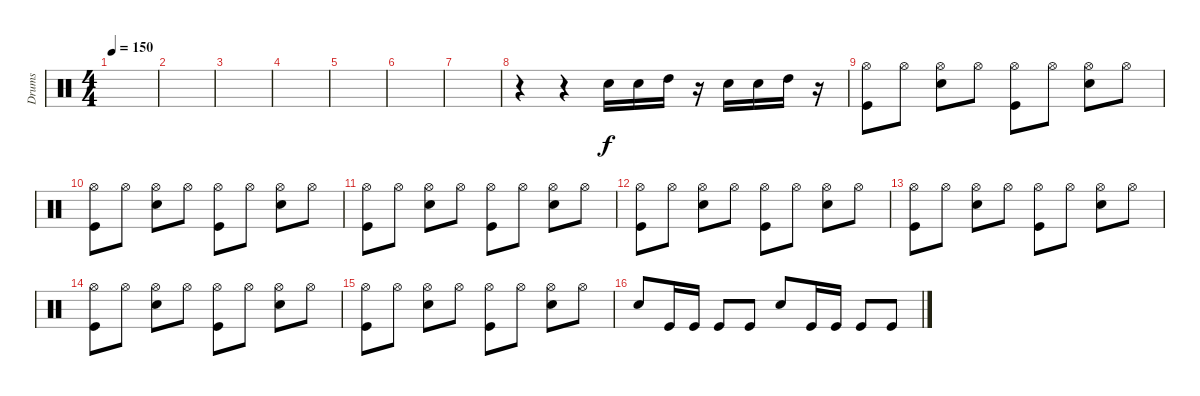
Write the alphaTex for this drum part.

\track ("Drums" "Drums") {instrument percussion}
\staff {score}
\articulation defaults
\ts (4 4)
\tempo 150
\clef neutral
\ks c
|
|
|
|
|
|
|
r.4 r.4 "Electric Snare (hit)".16 "Electric Snare (hit)".16 "High Tom (hit)".16 r.16 "Electric Snare (hit)".16 "Electric Snare (hit)".16 "High Tom (hit)".16 r.16 |
("Hi-Hat (open)" "Kick (hit)").8 "Hi-Hat (open)".8 ("Hi-Hat (open)" "Snare (hit) 2").8 "Hi-Hat (open)".8 ("Hi-Hat (open)" "Kick (hit)").8 "Hi-Hat (open)".8 ("Hi-Hat (open)" "Snare (hit) 2").8 "Hi-Hat (open)".8 |
("Hi-Hat (open)" "Kick (hit)").8 "Hi-Hat (open)".8 ("Hi-Hat (open)" "Snare (hit) 2").8 "Hi-Hat (open)".8 ("Hi-Hat (open)" "Kick (hit)").8 "Hi-Hat (open)".8 ("Hi-Hat (open)" "Snare (hit) 2").8 "Hi-Hat (open)".8 |
("Hi-Hat (open)" "Kick (hit)").8 "Hi-Hat (open)".8 ("Hi-Hat (open)" "Snare (hit) 2").8 "Hi-Hat (open)".8 ("Hi-Hat (open)" "Kick (hit)").8 "Hi-Hat (open)".8 ("Hi-Hat (open)" "Snare (hit) 2").8 "Hi-Hat (open)".8 |
("Hi-Hat (open)" "Kick (hit)").8 "Hi-Hat (open)".8 ("Hi-Hat (open)" "Snare (hit) 2").8 "Hi-Hat (open)".8 ("Hi-Hat (open)" "Kick (hit)").8 "Hi-Hat (open)".8 ("Hi-Hat (open)" "Snare (hit) 2").8 "Hi-Hat (open)".8 |
("Hi-Hat (open)" "Kick (hit)").8 "Hi-Hat (open)".8 ("Hi-Hat (open)" "Snare (hit) 2").8 "Hi-Hat (open)".8 ("Hi-Hat (open)" "Kick (hit)").8 "Hi-Hat (open)".8 ("Hi-Hat (open)" "Snare (hit) 2").8 "Hi-Hat (open)".8 |
("Hi-Hat (open)" "Kick (hit)").8 "Hi-Hat (open)".8 ("Hi-Hat (open)" "Snare (hit) 2").8 "Hi-Hat (open)".8 ("Hi-Hat (open)" "Kick (hit)").8 "Hi-Hat (open)".8 ("Hi-Hat (open)" "Snare (hit) 2").8 "Hi-Hat (open)".8 |
("Hi-Hat (open)" "Kick (hit)").8 "Hi-Hat (open)".8 ("Hi-Hat (open)" "Snare (hit) 2").8 "Hi-Hat (open)".8 ("Hi-Hat (open)" "Kick (hit)").8 "Hi-Hat (open)".8 ("Hi-Hat (open)" "Snare (hit) 2").8 "Hi-Hat (open)".8 |
"Electric Snare (hit)".8 "Kick (hit)".16 "Kick (hit)".16 "Kick (hit)".8 "Kick (hit)".8 "Electric Snare (hit)".8 "Kick (hit)".16 "Kick (hit)".16 "Kick (hit)".8 "Kick (hit)".8
